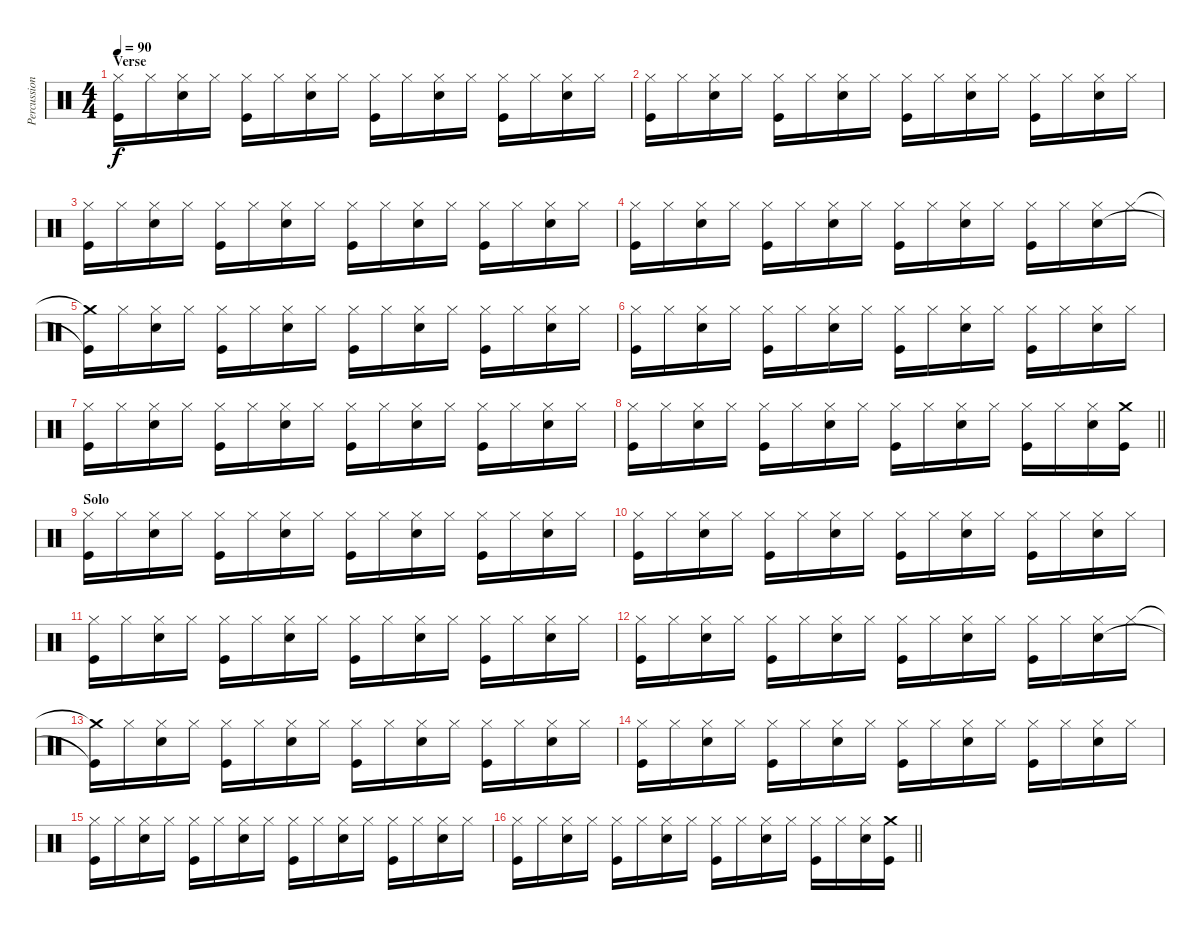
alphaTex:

\track ("Percussion" "Percussion") {instrument percussion}
\staff {score}
\articulation defaults
\ts (4 4)
\section ("" "Verse")
\tempo 90
\clef neutral
\ks c
("Hi-Hat (closed)" "Kick (hit)").16{dy f} "Hi-Hat (closed)".16 ("Hi-Hat (closed)" "Snare (hit) 2").16 "Hi-Hat (closed)".16 ("Hi-Hat (closed)" "Kick (hit)").16 "Hi-Hat (closed)".16 ("Hi-Hat (closed)" "Snare (hit) 2").16 "Hi-Hat (closed)".16 ("Hi-Hat (closed)" "Kick (hit)").16 "Hi-Hat (closed)".16 ("Hi-Hat (closed)" "Snare (hit) 2").16 "Hi-Hat (closed)".16 ("Hi-Hat (closed)" "Kick (hit)").16 "Hi-Hat (closed)".16 ("Hi-Hat (closed)" "Snare (hit) 2").16 "Hi-Hat (closed)".16 |
("Hi-Hat (closed)" "Kick (hit)").16 "Hi-Hat (closed)".16 ("Hi-Hat (closed)" "Snare (hit) 2").16 "Hi-Hat (closed)".16 ("Hi-Hat (closed)" "Kick (hit)").16 "Hi-Hat (closed)".16 ("Hi-Hat (closed)" "Snare (hit) 2").16 "Hi-Hat (closed)".16 ("Hi-Hat (closed)" "Kick (hit)").16 "Hi-Hat (closed)".16 ("Hi-Hat (closed)" "Snare (hit) 2").16 "Hi-Hat (closed)".16 ("Hi-Hat (closed)" "Kick (hit)").16 "Hi-Hat (closed)".16 ("Hi-Hat (closed)" "Snare (hit) 2").16 "Hi-Hat (closed)".16 |
("Hi-Hat (closed)" "Kick (hit)").16 "Hi-Hat (closed)".16 ("Hi-Hat (closed)" "Snare (hit) 2").16 "Hi-Hat (closed)".16 ("Hi-Hat (closed)" "Kick (hit)").16 "Hi-Hat (closed)".16 ("Hi-Hat (closed)" "Snare (hit) 2").16 "Hi-Hat (closed)".16 ("Hi-Hat (closed)" "Kick (hit)").16 "Hi-Hat (closed)".16 ("Hi-Hat (closed)" "Snare (hit) 2").16 "Hi-Hat (closed)".16 ("Hi-Hat (closed)" "Kick (hit)").16 "Hi-Hat (closed)".16 ("Hi-Hat (closed)" "Snare (hit) 2").16 "Hi-Hat (closed)".16 |
("Hi-Hat (closed)" "Kick (hit)").16 "Hi-Hat (closed)".16 ("Hi-Hat (closed)" "Snare (hit) 2").16 "Hi-Hat (closed)".16 ("Hi-Hat (closed)" "Kick (hit)").16 "Hi-Hat (closed)".16 ("Hi-Hat (closed)" "Snare (hit) 2").16 "Hi-Hat (closed)".16 ("Hi-Hat (closed)" "Kick (hit)").16 "Hi-Hat (closed)".16 ("Hi-Hat (closed)" "Snare (hit) 2").16 "Hi-Hat (closed)".16 ("Hi-Hat (closed)" "Kick (hit)").16 "Hi-Hat (closed)".16 ("Hi-Hat (closed)" "Snare (hit) 2").16 "Hi-Hat (closed)".16 |
("Crash medium (hit)"{t} "Kick (hit)"{t}).16 "Hi-Hat (closed)".16 ("Hi-Hat (closed)" "Snare (hit) 2").16 "Hi-Hat (closed)".16 ("Hi-Hat (closed)" "Kick (hit)").16 "Hi-Hat (closed)".16 ("Hi-Hat (closed)" "Snare (hit) 2").16 "Hi-Hat (closed)".16 ("Hi-Hat (closed)" "Kick (hit)").16 "Hi-Hat (closed)".16 ("Hi-Hat (closed)" "Snare (hit) 2").16 "Hi-Hat (closed)".16 ("Hi-Hat (closed)" "Kick (hit)").16 "Hi-Hat (closed)".16 ("Hi-Hat (closed)" "Snare (hit) 2").16 "Hi-Hat (closed)".16 |
("Hi-Hat (closed)" "Kick (hit)").16 "Hi-Hat (closed)".16 ("Hi-Hat (closed)" "Snare (hit) 2").16 "Hi-Hat (closed)".16 ("Hi-Hat (closed)" "Kick (hit)").16 "Hi-Hat (closed)".16 ("Hi-Hat (closed)" "Snare (hit) 2").16 "Hi-Hat (closed)".16 ("Hi-Hat (closed)" "Kick (hit)").16 "Hi-Hat (closed)".16 ("Hi-Hat (closed)" "Snare (hit) 2").16 "Hi-Hat (closed)".16 ("Hi-Hat (closed)" "Kick (hit)").16 "Hi-Hat (closed)".16 ("Hi-Hat (closed)" "Snare (hit) 2").16 "Hi-Hat (closed)".16 |
("Hi-Hat (closed)" "Kick (hit)").16 "Hi-Hat (closed)".16 ("Hi-Hat (closed)" "Snare (hit) 2").16 "Hi-Hat (closed)".16 ("Hi-Hat (closed)" "Kick (hit)").16 "Hi-Hat (closed)".16 ("Hi-Hat (closed)" "Snare (hit) 2").16 "Hi-Hat (closed)".16 ("Hi-Hat (closed)" "Kick (hit)").16 "Hi-Hat (closed)".16 ("Hi-Hat (closed)" "Snare (hit) 2").16 "Hi-Hat (closed)".16 ("Hi-Hat (closed)" "Kick (hit)").16 "Hi-Hat (closed)".16 ("Hi-Hat (closed)" "Snare (hit) 2").16 "Hi-Hat (closed)".16 |
\barLineRight lightlight
("Hi-Hat (closed)" "Kick (hit)").16 "Hi-Hat (closed)".16 ("Hi-Hat (closed)" "Snare (hit) 2").16 "Hi-Hat (closed)".16 ("Hi-Hat (closed)" "Kick (hit)").16 "Hi-Hat (closed)".16 ("Hi-Hat (closed)" "Snare (hit) 2").16 "Hi-Hat (closed)".16 ("Hi-Hat (closed)" "Kick (hit)").16 "Hi-Hat (closed)".16 ("Hi-Hat (closed)" "Snare (hit) 2").16 "Hi-Hat (closed)".16 ("Hi-Hat (closed)" "Kick (hit)").16 "Hi-Hat (closed)".16 ("Hi-Hat (closed)" "Snare (hit) 2").16 ("Crash medium (hit)" "Kick (hit)").16 |
\section ("" "Solo")
("Hi-Hat (closed)" "Kick (hit)").16 "Hi-Hat (closed)".16 ("Hi-Hat (closed)" "Snare (hit) 2").16 "Hi-Hat (closed)".16 ("Hi-Hat (closed)" "Kick (hit)").16 "Hi-Hat (closed)".16 ("Hi-Hat (closed)" "Snare (hit) 2").16 "Hi-Hat (closed)".16 ("Hi-Hat (closed)" "Kick (hit)").16 "Hi-Hat (closed)".16 ("Hi-Hat (closed)" "Snare (hit) 2").16 "Hi-Hat (closed)".16 ("Hi-Hat (closed)" "Kick (hit)").16 "Hi-Hat (closed)".16 ("Hi-Hat (closed)" "Snare (hit) 2").16 "Hi-Hat (closed)".16 |
("Hi-Hat (closed)" "Kick (hit)").16 "Hi-Hat (closed)".16 ("Hi-Hat (closed)" "Snare (hit) 2").16 "Hi-Hat (closed)".16 ("Hi-Hat (closed)" "Kick (hit)").16 "Hi-Hat (closed)".16 ("Hi-Hat (closed)" "Snare (hit) 2").16 "Hi-Hat (closed)".16 ("Hi-Hat (closed)" "Kick (hit)").16 "Hi-Hat (closed)".16 ("Hi-Hat (closed)" "Snare (hit) 2").16 "Hi-Hat (closed)".16 ("Hi-Hat (closed)" "Kick (hit)").16 "Hi-Hat (closed)".16 ("Hi-Hat (closed)" "Snare (hit) 2").16 "Hi-Hat (closed)".16 |
("Hi-Hat (closed)" "Kick (hit)").16 "Hi-Hat (closed)".16 ("Hi-Hat (closed)" "Snare (hit) 2").16 "Hi-Hat (closed)".16 ("Hi-Hat (closed)" "Kick (hit)").16 "Hi-Hat (closed)".16 ("Hi-Hat (closed)" "Snare (hit) 2").16 "Hi-Hat (closed)".16 ("Hi-Hat (closed)" "Kick (hit)").16 "Hi-Hat (closed)".16 ("Hi-Hat (closed)" "Snare (hit) 2").16 "Hi-Hat (closed)".16 ("Hi-Hat (closed)" "Kick (hit)").16 "Hi-Hat (closed)".16 ("Hi-Hat (closed)" "Snare (hit) 2").16 "Hi-Hat (closed)".16 |
("Hi-Hat (closed)" "Kick (hit)").16 "Hi-Hat (closed)".16 ("Hi-Hat (closed)" "Snare (hit) 2").16 "Hi-Hat (closed)".16 ("Hi-Hat (closed)" "Kick (hit)").16 "Hi-Hat (closed)".16 ("Hi-Hat (closed)" "Snare (hit) 2").16 "Hi-Hat (closed)".16 ("Hi-Hat (closed)" "Kick (hit)").16 "Hi-Hat (closed)".16 ("Hi-Hat (closed)" "Snare (hit) 2").16 "Hi-Hat (closed)".16 ("Hi-Hat (closed)" "Kick (hit)").16 "Hi-Hat (closed)".16 ("Hi-Hat (closed)" "Snare (hit) 2").16 "Hi-Hat (closed)".16 |
("Crash medium (hit)"{t} "Kick (hit)"{t}).16 "Hi-Hat (closed)".16 ("Hi-Hat (closed)" "Snare (hit) 2").16 "Hi-Hat (closed)".16 ("Hi-Hat (closed)" "Kick (hit)").16 "Hi-Hat (closed)".16 ("Hi-Hat (closed)" "Snare (hit) 2").16 "Hi-Hat (closed)".16 ("Hi-Hat (closed)" "Kick (hit)").16 "Hi-Hat (closed)".16 ("Hi-Hat (closed)" "Snare (hit) 2").16 "Hi-Hat (closed)".16 ("Hi-Hat (closed)" "Kick (hit)").16 "Hi-Hat (closed)".16 ("Hi-Hat (closed)" "Snare (hit) 2").16 "Hi-Hat (closed)".16 |
("Hi-Hat (closed)" "Kick (hit)").16 "Hi-Hat (closed)".16 ("Hi-Hat (closed)" "Snare (hit) 2").16 "Hi-Hat (closed)".16 ("Hi-Hat (closed)" "Kick (hit)").16 "Hi-Hat (closed)".16 ("Hi-Hat (closed)" "Snare (hit) 2").16 "Hi-Hat (closed)".16 ("Hi-Hat (closed)" "Kick (hit)").16 "Hi-Hat (closed)".16 ("Hi-Hat (closed)" "Snare (hit) 2").16 "Hi-Hat (closed)".16 ("Hi-Hat (closed)" "Kick (hit)").16 "Hi-Hat (closed)".16 ("Hi-Hat (closed)" "Snare (hit) 2").16 "Hi-Hat (closed)".16 |
("Hi-Hat (closed)" "Kick (hit)").16 "Hi-Hat (closed)".16 ("Hi-Hat (closed)" "Snare (hit) 2").16 "Hi-Hat (closed)".16 ("Hi-Hat (closed)" "Kick (hit)").16 "Hi-Hat (closed)".16 ("Hi-Hat (closed)" "Snare (hit) 2").16 "Hi-Hat (closed)".16 ("Hi-Hat (closed)" "Kick (hit)").16 "Hi-Hat (closed)".16 ("Hi-Hat (closed)" "Snare (hit) 2").16 "Hi-Hat (closed)".16 ("Hi-Hat (closed)" "Kick (hit)").16 "Hi-Hat (closed)".16 ("Hi-Hat (closed)" "Snare (hit) 2").16 "Hi-Hat (closed)".16 |
\barLineRight lightlight
("Hi-Hat (closed)" "Kick (hit)").16 "Hi-Hat (closed)".16 ("Hi-Hat (closed)" "Snare (hit) 2").16 "Hi-Hat (closed)".16 ("Hi-Hat (closed)" "Kick (hit)").16 "Hi-Hat (closed)".16 ("Hi-Hat (closed)" "Snare (hit) 2").16 "Hi-Hat (closed)".16 ("Hi-Hat (closed)" "Kick (hit)").16 "Hi-Hat (closed)".16 ("Hi-Hat (closed)" "Snare (hit) 2").16 "Hi-Hat (closed)".16 ("Hi-Hat (closed)" "Kick (hit)").16 "Hi-Hat (closed)".16 ("Hi-Hat (closed)" "Snare (hit) 2").16 ("Crash medium (hit)" "Kick (hit)").16
